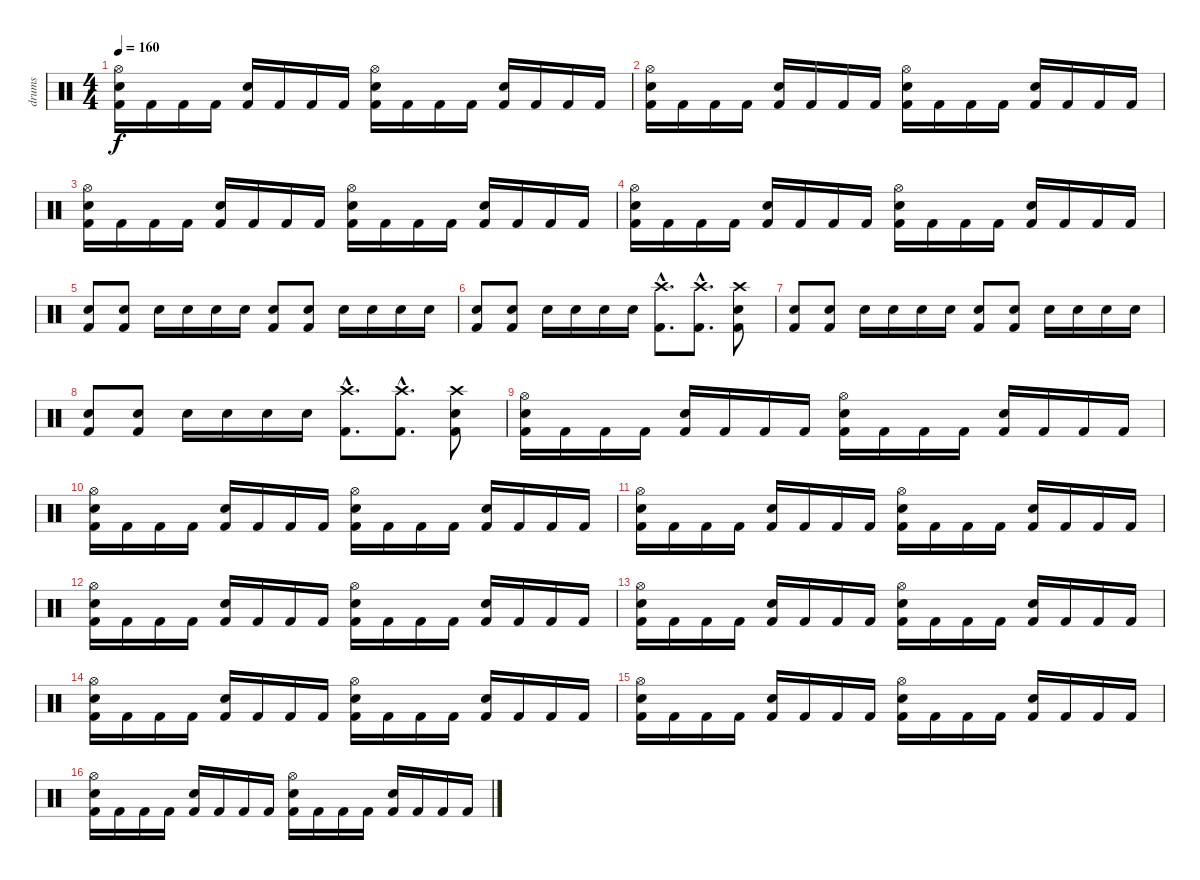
\track ("drums" "drums") {instrument percussion}
\staff {score}
\articulation defaults
\ts (4 4)
\tempo 160
\clef neutral
\ks c
("Hi-Hat (open)" "Electric Snare (hit)" "Kick (hit) 2").16{dy f} "Kick (hit) 2".16 "Kick (hit) 2".16 "Kick (hit) 2".16 ("Electric Snare (hit)" "Kick (hit) 2").16 "Kick (hit) 2".16 "Kick (hit) 2".16 "Kick (hit) 2".16 ("Hi-Hat (open)" "Electric Snare (hit)" "Kick (hit) 2").16 "Kick (hit) 2".16 "Kick (hit) 2".16 "Kick (hit) 2".16 ("Electric Snare (hit)" "Kick (hit) 2").16 "Kick (hit) 2".16 "Kick (hit) 2".16 "Kick (hit) 2".16 |
("Hi-Hat (open)" "Electric Snare (hit)" "Kick (hit) 2").16 "Kick (hit) 2".16 "Kick (hit) 2".16 "Kick (hit) 2".16 ("Electric Snare (hit)" "Kick (hit) 2").16 "Kick (hit) 2".16 "Kick (hit) 2".16 "Kick (hit) 2".16 ("Hi-Hat (open)" "Electric Snare (hit)" "Kick (hit) 2").16 "Kick (hit) 2".16 "Kick (hit) 2".16 "Kick (hit) 2".16 ("Electric Snare (hit)" "Kick (hit) 2").16 "Kick (hit) 2".16 "Kick (hit) 2".16 "Kick (hit) 2".16 |
("Hi-Hat (open)" "Electric Snare (hit)" "Kick (hit) 2").16 "Kick (hit) 2".16 "Kick (hit) 2".16 "Kick (hit) 2".16 ("Electric Snare (hit)" "Kick (hit) 2").16 "Kick (hit) 2".16 "Kick (hit) 2".16 "Kick (hit) 2".16 ("Hi-Hat (open)" "Electric Snare (hit)" "Kick (hit) 2").16 "Kick (hit) 2".16 "Kick (hit) 2".16 "Kick (hit) 2".16 ("Electric Snare (hit)" "Kick (hit) 2").16 "Kick (hit) 2".16 "Kick (hit) 2".16 "Kick (hit) 2".16 |
("Hi-Hat (open)" "Electric Snare (hit)" "Kick (hit) 2").16 "Kick (hit) 2".16 "Kick (hit) 2".16 "Kick (hit) 2".16 ("Electric Snare (hit)" "Kick (hit) 2").16 "Kick (hit) 2".16 "Kick (hit) 2".16 "Kick (hit) 2".16 ("Hi-Hat (open)" "Electric Snare (hit)" "Kick (hit) 2").16 "Kick (hit) 2".16 "Kick (hit) 2".16 "Kick (hit) 2".16 ("Electric Snare (hit)" "Kick (hit) 2").16 "Kick (hit) 2".16 "Kick (hit) 2".16 "Kick (hit) 2".16 |
("Electric Snare (hit)" "Kick (hit) 2").8{volume 10} ("Electric Snare (hit)" "Kick (hit) 2").8 "Electric Snare (hit)".16 "Electric Snare (hit)".16 "Electric Snare (hit)".16 "Electric Snare (hit)".16 ("Electric Snare (hit)" "Kick (hit) 2").8 ("Electric Snare (hit)" "Kick (hit) 2").8 "Electric Snare (hit)".16 "Electric Snare (hit)".16 "Electric Snare (hit)".16 "Electric Snare (hit)".16 |
("Electric Snare (hit)" "Kick (hit) 2").8 ("Electric Snare (hit)" "Kick (hit) 2").8 "Electric Snare (hit)".16 "Electric Snare (hit)".16 "Electric Snare (hit)".16 "Electric Snare (hit)".16 ("Crash high (hit)"{hac} "Kick (hit) 2"{hac}).8{d} ("Crash high (hit)"{hac} "Kick (hit) 2"{hac}).8{d} ("Crash high (hit)" "Electric Snare (hit)" "Kick (hit) 2").8 |
("Electric Snare (hit)" "Kick (hit) 2").8{volume 10} ("Electric Snare (hit)" "Kick (hit) 2").8 "Electric Snare (hit)".16 "Electric Snare (hit)".16 "Electric Snare (hit)".16 "Electric Snare (hit)".16 ("Electric Snare (hit)" "Kick (hit) 2").8 ("Electric Snare (hit)" "Kick (hit) 2").8 "Electric Snare (hit)".16 "Electric Snare (hit)".16 "Electric Snare (hit)".16 "Electric Snare (hit)".16 |
("Electric Snare (hit)" "Kick (hit) 2").8 ("Electric Snare (hit)" "Kick (hit) 2").8 "Electric Snare (hit)".16 "Electric Snare (hit)".16 "Electric Snare (hit)".16 "Electric Snare (hit)".16 ("Crash high (hit)"{hac} "Kick (hit) 2"{hac}).8{d} ("Crash high (hit)"{hac} "Kick (hit) 2"{hac}).8{d} ("Crash high (hit)" "Electric Snare (hit)" "Kick (hit) 2").8 |
("Hi-Hat (open)" "Electric Snare (hit)" "Kick (hit) 2").16{volume 12} "Kick (hit) 2".16 "Kick (hit) 2".16 "Kick (hit) 2".16 ("Electric Snare (hit)" "Kick (hit) 2").16 "Kick (hit) 2".16 "Kick (hit) 2".16 "Kick (hit) 2".16 ("Hi-Hat (open)" "Electric Snare (hit)" "Kick (hit) 2").16 "Kick (hit) 2".16 "Kick (hit) 2".16 "Kick (hit) 2".16 ("Electric Snare (hit)" "Kick (hit) 2").16 "Kick (hit) 2".16 "Kick (hit) 2".16 "Kick (hit) 2".16 |
("Hi-Hat (open)" "Electric Snare (hit)" "Kick (hit) 2").16 "Kick (hit) 2".16 "Kick (hit) 2".16 "Kick (hit) 2".16 ("Electric Snare (hit)" "Kick (hit) 2").16 "Kick (hit) 2".16 "Kick (hit) 2".16 "Kick (hit) 2".16 ("Hi-Hat (open)" "Electric Snare (hit)" "Kick (hit) 2").16 "Kick (hit) 2".16 "Kick (hit) 2".16 "Kick (hit) 2".16 ("Electric Snare (hit)" "Kick (hit) 2").16 "Kick (hit) 2".16 "Kick (hit) 2".16 "Kick (hit) 2".16 |
("Hi-Hat (open)" "Electric Snare (hit)" "Kick (hit) 2").16 "Kick (hit) 2".16 "Kick (hit) 2".16 "Kick (hit) 2".16 ("Electric Snare (hit)" "Kick (hit) 2").16 "Kick (hit) 2".16 "Kick (hit) 2".16 "Kick (hit) 2".16 ("Hi-Hat (open)" "Electric Snare (hit)" "Kick (hit) 2").16 "Kick (hit) 2".16 "Kick (hit) 2".16 "Kick (hit) 2".16 ("Electric Snare (hit)" "Kick (hit) 2").16 "Kick (hit) 2".16 "Kick (hit) 2".16 "Kick (hit) 2".16 |
("Hi-Hat (open)" "Electric Snare (hit)" "Kick (hit) 2").16 "Kick (hit) 2".16 "Kick (hit) 2".16 "Kick (hit) 2".16 ("Electric Snare (hit)" "Kick (hit) 2").16 "Kick (hit) 2".16 "Kick (hit) 2".16 "Kick (hit) 2".16 ("Hi-Hat (open)" "Electric Snare (hit)" "Kick (hit) 2").16 "Kick (hit) 2".16 "Kick (hit) 2".16 "Kick (hit) 2".16 ("Electric Snare (hit)" "Kick (hit) 2").16 "Kick (hit) 2".16 "Kick (hit) 2".16 "Kick (hit) 2".16 |
("Hi-Hat (open)" "Electric Snare (hit)" "Kick (hit) 2").16 "Kick (hit) 2".16 "Kick (hit) 2".16 "Kick (hit) 2".16 ("Electric Snare (hit)" "Kick (hit) 2").16 "Kick (hit) 2".16 "Kick (hit) 2".16 "Kick (hit) 2".16 ("Hi-Hat (open)" "Electric Snare (hit)" "Kick (hit) 2").16 "Kick (hit) 2".16 "Kick (hit) 2".16 "Kick (hit) 2".16 ("Electric Snare (hit)" "Kick (hit) 2").16 "Kick (hit) 2".16 "Kick (hit) 2".16 "Kick (hit) 2".16 |
("Hi-Hat (open)" "Electric Snare (hit)" "Kick (hit) 2").16 "Kick (hit) 2".16 "Kick (hit) 2".16 "Kick (hit) 2".16 ("Electric Snare (hit)" "Kick (hit) 2").16 "Kick (hit) 2".16 "Kick (hit) 2".16 "Kick (hit) 2".16 ("Hi-Hat (open)" "Electric Snare (hit)" "Kick (hit) 2").16 "Kick (hit) 2".16 "Kick (hit) 2".16 "Kick (hit) 2".16 ("Electric Snare (hit)" "Kick (hit) 2").16 "Kick (hit) 2".16 "Kick (hit) 2".16 "Kick (hit) 2".16 |
("Hi-Hat (open)" "Electric Snare (hit)" "Kick (hit) 2").16 "Kick (hit) 2".16 "Kick (hit) 2".16 "Kick (hit) 2".16 ("Electric Snare (hit)" "Kick (hit) 2").16 "Kick (hit) 2".16 "Kick (hit) 2".16 "Kick (hit) 2".16 ("Hi-Hat (open)" "Electric Snare (hit)" "Kick (hit) 2").16 "Kick (hit) 2".16 "Kick (hit) 2".16 "Kick (hit) 2".16 ("Electric Snare (hit)" "Kick (hit) 2").16 "Kick (hit) 2".16 "Kick (hit) 2".16 "Kick (hit) 2".16 |
("Hi-Hat (open)" "Electric Snare (hit)" "Kick (hit) 2").16 "Kick (hit) 2".16 "Kick (hit) 2".16 "Kick (hit) 2".16 ("Electric Snare (hit)" "Kick (hit) 2").16 "Kick (hit) 2".16 "Kick (hit) 2".16 "Kick (hit) 2".16 ("Hi-Hat (open)" "Electric Snare (hit)" "Kick (hit) 2").16 "Kick (hit) 2".16 "Kick (hit) 2".16 "Kick (hit) 2".16 ("Electric Snare (hit)" "Kick (hit) 2").16 "Kick (hit) 2".16 "Kick (hit) 2".16 "Kick (hit) 2".16
